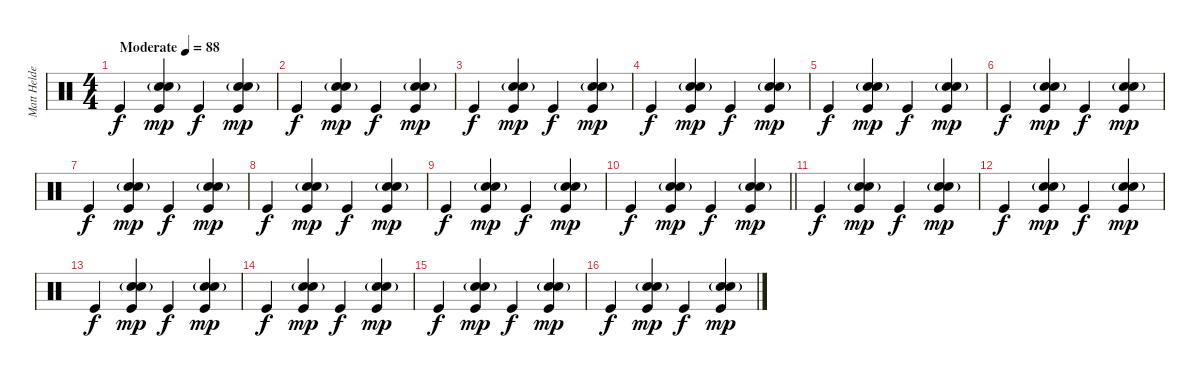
\track ("Matt Helders" "Matt Helde") {instrument percussion}
\staff {score}
\articulation defaults
\ts (4 4)
\tempo (88 "Moderate")
\clef neutral
\ks c "Kick (hit)".4{dy f}
("Hand Clap (hit)" "Snare (hit) 2"{g} "Kick (hit)").4{dy mp} "Kick (hit)".4{dy f} ("Hand Clap (hit)" "Snare (hit) 2"{g} "Kick (hit)").4{dy mp} |
"Kick (hit)".4{dy f} ("Hand Clap (hit)" "Snare (hit) 2"{g} "Kick (hit)").4{dy mp} "Kick (hit)".4{dy f} ("Hand Clap (hit)" "Snare (hit) 2"{g} "Kick (hit)").4{dy mp} |
"Kick (hit)".4{dy f} ("Hand Clap (hit)" "Snare (hit) 2"{g} "Kick (hit)").4{dy mp} "Kick (hit)".4{dy f} ("Hand Clap (hit)" "Snare (hit) 2"{g} "Kick (hit)").4{dy mp} |
"Kick (hit)".4{dy f} ("Hand Clap (hit)" "Snare (hit) 2"{g} "Kick (hit)").4{dy mp} "Kick (hit)".4{dy f} ("Hand Clap (hit)" "Snare (hit) 2"{g} "Kick (hit)").4{dy mp} |
"Kick (hit)".4{dy f} ("Hand Clap (hit)" "Snare (hit) 2"{g} "Kick (hit)").4{dy mp} "Kick (hit)".4{dy f} ("Hand Clap (hit)" "Snare (hit) 2"{g} "Kick (hit)").4{dy mp} |
"Kick (hit)".4{dy f} ("Hand Clap (hit)" "Snare (hit) 2"{g} "Kick (hit)").4{dy mp} "Kick (hit)".4{dy f} ("Hand Clap (hit)" "Snare (hit) 2"{g} "Kick (hit)").4{dy mp} |
"Kick (hit)".4{dy f} ("Hand Clap (hit)" "Snare (hit) 2"{g} "Kick (hit)").4{dy mp} "Kick (hit)".4{dy f} ("Hand Clap (hit)" "Snare (hit) 2"{g} "Kick (hit)").4{dy mp} |
"Kick (hit)".4{dy f} ("Hand Clap (hit)" "Snare (hit) 2"{g} "Kick (hit)").4{dy mp} "Kick (hit)".4{dy f} ("Hand Clap (hit)" "Snare (hit) 2"{g} "Kick (hit)").4{dy mp} |
"Kick (hit)".4{dy f} ("Hand Clap (hit)" "Snare (hit) 2"{g} "Kick (hit)").4{dy mp} "Kick (hit)".4{dy f} ("Hand Clap (hit)" "Snare (hit) 2"{g} "Kick (hit)").4{dy mp} |
\barLineRight lightlight "Kick (hit)".4{dy f}
("Hand Clap (hit)" "Snare (hit) 2"{g} "Kick (hit)").4{dy mp} "Kick (hit)".4{dy f} ("Hand Clap (hit)" "Snare (hit) 2"{g} "Kick (hit)").4{dy mp} |
"Kick (hit)".4{dy f} ("Hand Clap (hit)" "Snare (hit) 2"{g} "Kick (hit)").4{dy mp} "Kick (hit)".4{dy f} ("Hand Clap (hit)" "Snare (hit) 2"{g} "Kick (hit)").4{dy mp} |
"Kick (hit)".4{dy f} ("Hand Clap (hit)" "Snare (hit) 2"{g} "Kick (hit)").4{dy mp} "Kick (hit)".4{dy f} ("Hand Clap (hit)" "Snare (hit) 2"{g} "Kick (hit)").4{dy mp} |
"Kick (hit)".4{dy f} ("Hand Clap (hit)" "Snare (hit) 2"{g} "Kick (hit)").4{dy mp} "Kick (hit)".4{dy f} ("Hand Clap (hit)" "Snare (hit) 2"{g} "Kick (hit)").4{dy mp} |
"Kick (hit)".4{dy f} ("Hand Clap (hit)" "Snare (hit) 2"{g} "Kick (hit)").4{dy mp} "Kick (hit)".4{dy f} ("Hand Clap (hit)" "Snare (hit) 2"{g} "Kick (hit)").4{dy mp} |
"Kick (hit)".4{dy f} ("Hand Clap (hit)" "Snare (hit) 2"{g} "Kick (hit)").4{dy mp} "Kick (hit)".4{dy f} ("Hand Clap (hit)" "Snare (hit) 2"{g} "Kick (hit)").4{dy mp} |
"Kick (hit)".4{dy f} ("Hand Clap (hit)" "Snare (hit) 2"{g} "Kick (hit)").4{dy mp} "Kick (hit)".4{dy f} ("Hand Clap (hit)" "Snare (hit) 2"{g} "Kick (hit)").4{dy mp}
